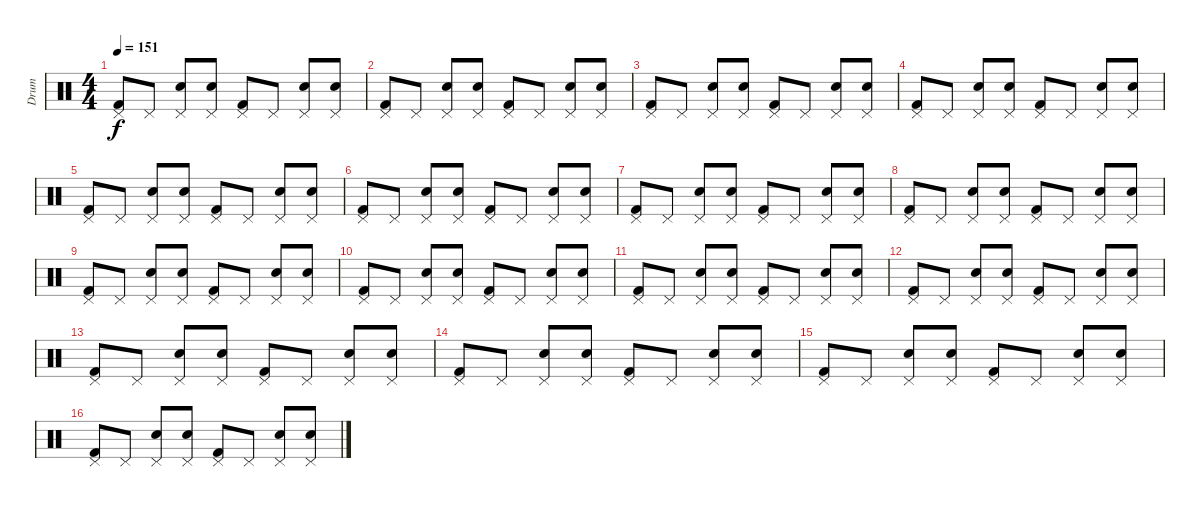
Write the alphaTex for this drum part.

\track ("Drum" "Drum") {instrument percussion}
\staff {score}
\articulation defaults
\ts (4 4)
\tempo 151
\clef neutral
\ks c
("Pedal Hi-Hat (hit)" "Kick (hit) 2").8{dy f} "Pedal Hi-Hat (hit)".8 ("Pedal Hi-Hat (hit)" "Electric Snare (hit)").8 ("Pedal Hi-Hat (hit)" "Electric Snare (hit)").8 ("Pedal Hi-Hat (hit)" "Kick (hit) 2").8 "Pedal Hi-Hat (hit)".8 ("Pedal Hi-Hat (hit)" "Electric Snare (hit)").8 ("Pedal Hi-Hat (hit)" "Electric Snare (hit)").8 |
("Pedal Hi-Hat (hit)" "Kick (hit) 2").8 "Pedal Hi-Hat (hit)".8 ("Pedal Hi-Hat (hit)" "Electric Snare (hit)").8 ("Pedal Hi-Hat (hit)" "Electric Snare (hit)").8 ("Pedal Hi-Hat (hit)" "Kick (hit) 2").8 "Pedal Hi-Hat (hit)".8 ("Pedal Hi-Hat (hit)" "Electric Snare (hit)").8 ("Pedal Hi-Hat (hit)" "Electric Snare (hit)").8 |
("Pedal Hi-Hat (hit)" "Kick (hit) 2").8 "Pedal Hi-Hat (hit)".8 ("Pedal Hi-Hat (hit)" "Electric Snare (hit)").8 ("Pedal Hi-Hat (hit)" "Electric Snare (hit)").8 ("Pedal Hi-Hat (hit)" "Kick (hit) 2").8 "Pedal Hi-Hat (hit)".8 ("Pedal Hi-Hat (hit)" "Electric Snare (hit)").8 ("Pedal Hi-Hat (hit)" "Electric Snare (hit)").8 |
("Pedal Hi-Hat (hit)" "Kick (hit) 2").8 "Pedal Hi-Hat (hit)".8 ("Pedal Hi-Hat (hit)" "Electric Snare (hit)").8 ("Pedal Hi-Hat (hit)" "Electric Snare (hit)").8 ("Pedal Hi-Hat (hit)" "Kick (hit) 2").8 "Pedal Hi-Hat (hit)".8 ("Pedal Hi-Hat (hit)" "Electric Snare (hit)").8 ("Pedal Hi-Hat (hit)" "Electric Snare (hit)").8 |
("Pedal Hi-Hat (hit)" "Kick (hit) 2").8 "Pedal Hi-Hat (hit)".8 ("Pedal Hi-Hat (hit)" "Electric Snare (hit)").8 ("Pedal Hi-Hat (hit)" "Electric Snare (hit)").8 ("Pedal Hi-Hat (hit)" "Kick (hit) 2").8 "Pedal Hi-Hat (hit)".8 ("Pedal Hi-Hat (hit)" "Electric Snare (hit)").8 ("Pedal Hi-Hat (hit)" "Electric Snare (hit)").8 |
("Pedal Hi-Hat (hit)" "Kick (hit) 2").8 "Pedal Hi-Hat (hit)".8 ("Pedal Hi-Hat (hit)" "Electric Snare (hit)").8 ("Pedal Hi-Hat (hit)" "Electric Snare (hit)").8 ("Pedal Hi-Hat (hit)" "Kick (hit) 2").8 "Pedal Hi-Hat (hit)".8 ("Pedal Hi-Hat (hit)" "Electric Snare (hit)").8 ("Pedal Hi-Hat (hit)" "Electric Snare (hit)").8 |
("Pedal Hi-Hat (hit)" "Kick (hit) 2").8 "Pedal Hi-Hat (hit)".8 ("Pedal Hi-Hat (hit)" "Electric Snare (hit)").8 ("Pedal Hi-Hat (hit)" "Electric Snare (hit)").8 ("Pedal Hi-Hat (hit)" "Kick (hit) 2").8 "Pedal Hi-Hat (hit)".8 ("Pedal Hi-Hat (hit)" "Electric Snare (hit)").8 ("Pedal Hi-Hat (hit)" "Electric Snare (hit)").8 |
("Pedal Hi-Hat (hit)" "Kick (hit) 2").8 "Pedal Hi-Hat (hit)".8 ("Pedal Hi-Hat (hit)" "Electric Snare (hit)").8 ("Pedal Hi-Hat (hit)" "Electric Snare (hit)").8 ("Pedal Hi-Hat (hit)" "Kick (hit) 2").8 "Pedal Hi-Hat (hit)".8 ("Pedal Hi-Hat (hit)" "Electric Snare (hit)").8 ("Pedal Hi-Hat (hit)" "Electric Snare (hit)").8 |
("Pedal Hi-Hat (hit)" "Kick (hit) 2").8 "Pedal Hi-Hat (hit)".8 ("Pedal Hi-Hat (hit)" "Electric Snare (hit)").8 ("Pedal Hi-Hat (hit)" "Electric Snare (hit)").8 ("Pedal Hi-Hat (hit)" "Kick (hit) 2").8 "Pedal Hi-Hat (hit)".8 ("Pedal Hi-Hat (hit)" "Electric Snare (hit)").8 ("Pedal Hi-Hat (hit)" "Electric Snare (hit)").8 |
("Pedal Hi-Hat (hit)" "Kick (hit) 2").8 "Pedal Hi-Hat (hit)".8 ("Pedal Hi-Hat (hit)" "Electric Snare (hit)").8 ("Pedal Hi-Hat (hit)" "Electric Snare (hit)").8 ("Pedal Hi-Hat (hit)" "Kick (hit) 2").8 "Pedal Hi-Hat (hit)".8 ("Pedal Hi-Hat (hit)" "Electric Snare (hit)").8 ("Pedal Hi-Hat (hit)" "Electric Snare (hit)").8 |
("Pedal Hi-Hat (hit)" "Kick (hit) 2").8 "Pedal Hi-Hat (hit)".8 ("Pedal Hi-Hat (hit)" "Electric Snare (hit)").8 ("Pedal Hi-Hat (hit)" "Electric Snare (hit)").8 ("Pedal Hi-Hat (hit)" "Kick (hit) 2").8 "Pedal Hi-Hat (hit)".8 ("Pedal Hi-Hat (hit)" "Electric Snare (hit)").8 ("Pedal Hi-Hat (hit)" "Electric Snare (hit)").8 |
("Pedal Hi-Hat (hit)" "Kick (hit) 2").8 "Pedal Hi-Hat (hit)".8 ("Pedal Hi-Hat (hit)" "Electric Snare (hit)").8 ("Pedal Hi-Hat (hit)" "Electric Snare (hit)").8 ("Pedal Hi-Hat (hit)" "Kick (hit) 2").8 "Pedal Hi-Hat (hit)".8 ("Pedal Hi-Hat (hit)" "Electric Snare (hit)").8 ("Pedal Hi-Hat (hit)" "Electric Snare (hit)").8 |
("Pedal Hi-Hat (hit)" "Kick (hit) 2").8 "Pedal Hi-Hat (hit)".8 ("Pedal Hi-Hat (hit)" "Electric Snare (hit)").8 ("Pedal Hi-Hat (hit)" "Electric Snare (hit)").8 ("Pedal Hi-Hat (hit)" "Kick (hit) 2").8 "Pedal Hi-Hat (hit)".8 ("Pedal Hi-Hat (hit)" "Electric Snare (hit)").8 ("Pedal Hi-Hat (hit)" "Electric Snare (hit)").8 |
("Pedal Hi-Hat (hit)" "Kick (hit) 2").8 "Pedal Hi-Hat (hit)".8 ("Pedal Hi-Hat (hit)" "Electric Snare (hit)").8 ("Pedal Hi-Hat (hit)" "Electric Snare (hit)").8 ("Pedal Hi-Hat (hit)" "Kick (hit) 2").8 "Pedal Hi-Hat (hit)".8 ("Pedal Hi-Hat (hit)" "Electric Snare (hit)").8 ("Pedal Hi-Hat (hit)" "Electric Snare (hit)").8 |
("Pedal Hi-Hat (hit)" "Kick (hit) 2").8 "Pedal Hi-Hat (hit)".8 ("Pedal Hi-Hat (hit)" "Electric Snare (hit)").8 ("Pedal Hi-Hat (hit)" "Electric Snare (hit)").8 ("Pedal Hi-Hat (hit)" "Kick (hit) 2").8 "Pedal Hi-Hat (hit)".8 ("Pedal Hi-Hat (hit)" "Electric Snare (hit)").8 ("Pedal Hi-Hat (hit)" "Electric Snare (hit)").8 |
("Pedal Hi-Hat (hit)" "Kick (hit) 2").8 "Pedal Hi-Hat (hit)".8 ("Pedal Hi-Hat (hit)" "Electric Snare (hit)").8 ("Pedal Hi-Hat (hit)" "Electric Snare (hit)").8 ("Pedal Hi-Hat (hit)" "Kick (hit) 2").8 "Pedal Hi-Hat (hit)".8 ("Pedal Hi-Hat (hit)" "Electric Snare (hit)").8 ("Pedal Hi-Hat (hit)" "Electric Snare (hit)").8
